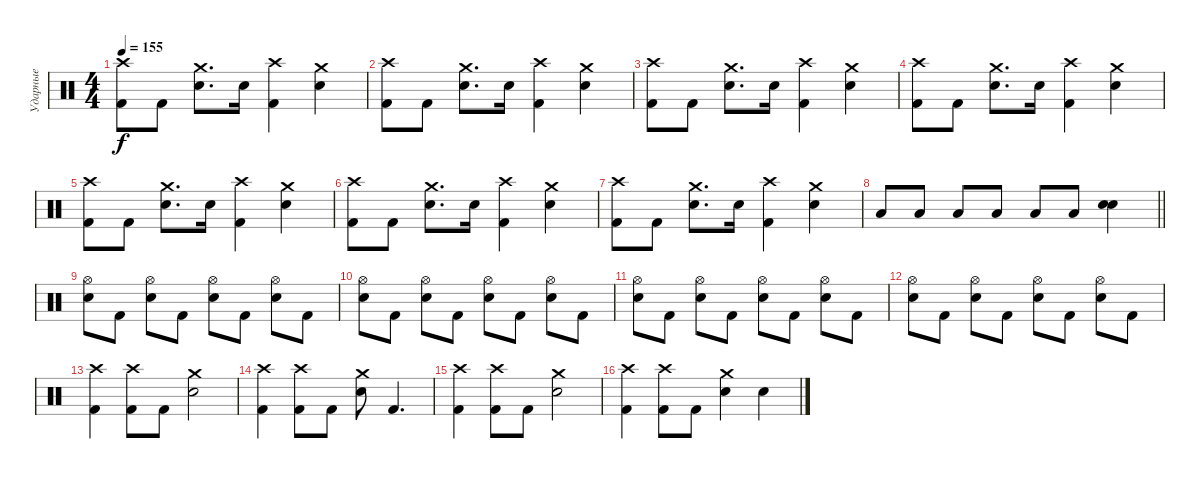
\track ("Ударные" "Ударные") {instrument percussion}
\staff {score}
\articulation defaults
\ts (4 4)
\tempo 155
\clef neutral
\ks c
("Kick (hit) 2" "Crash high (hit)").8{dy f} "Kick (hit) 2".8 ("Electric Snare (hit)" "Crash medium (hit)").8{d} "Electric Snare (hit)".16 ("Kick (hit) 2" "Crash high (hit)").4 ("Electric Snare (hit)" "Crash medium (hit)").4 |
("Kick (hit) 2" "Crash high (hit)").8 "Kick (hit) 2".8 ("Electric Snare (hit)" "Crash medium (hit)").8{d} "Electric Snare (hit)".16 ("Kick (hit) 2" "Crash high (hit)").4 ("Electric Snare (hit)" "Crash medium (hit)").4 |
("Kick (hit) 2" "Crash high (hit)").8 "Kick (hit) 2".8 ("Electric Snare (hit)" "Crash medium (hit)").8{d} "Electric Snare (hit)".16 ("Kick (hit) 2" "Crash high (hit)").4 ("Electric Snare (hit)" "Crash medium (hit)").4 |
("Kick (hit) 2" "Crash high (hit)").8 "Kick (hit) 2".8 ("Electric Snare (hit)" "Crash medium (hit)").8{d} "Electric Snare (hit)".16 ("Kick (hit) 2" "Crash high (hit)").4 ("Electric Snare (hit)" "Crash medium (hit)").4 |
("Kick (hit) 2" "Crash high (hit)").8 "Kick (hit) 2".8 ("Electric Snare (hit)" "Crash medium (hit)").8{d} "Electric Snare (hit)".16 ("Kick (hit) 2" "Crash high (hit)").4 ("Electric Snare (hit)" "Crash medium (hit)").4 |
("Kick (hit) 2" "Crash high (hit)").8 "Kick (hit) 2".8 ("Electric Snare (hit)" "Crash medium (hit)").8{d} "Electric Snare (hit)".16 ("Kick (hit) 2" "Crash high (hit)").4 ("Electric Snare (hit)" "Crash medium (hit)").4 |
("Kick (hit) 2" "Crash high (hit)").8 "Kick (hit) 2".8 ("Electric Snare (hit)" "Crash medium (hit)").8{d} "Electric Snare (hit)".16 ("Kick (hit) 2" "Crash high (hit)").4 ("Electric Snare (hit)" "Crash medium (hit)").4 |
\barLineRight lightlight "Low Floor Tom (hit)".8 "Low Floor Tom (hit)".8 "Low Floor Tom (hit)".8 "Low Floor Tom (hit)".8 "Low Floor Tom (hit)".8 "Low Floor Tom (hit)".8
("Electric Snare (hit)" "Electric Snare (hit)").4 |
("Electric Snare (hit)" "Hi-Hat (open)").8 "Kick (hit) 2".8 ("Electric Snare (hit)" "Hi-Hat (open)").8 "Kick (hit) 2".8 ("Electric Snare (hit)" "Hi-Hat (open)").8 "Kick (hit) 2".8 ("Electric Snare (hit)" "Hi-Hat (open)").8 "Kick (hit) 2".8 |
("Electric Snare (hit)" "Hi-Hat (open)").8 "Kick (hit) 2".8 ("Electric Snare (hit)" "Hi-Hat (open)").8 "Kick (hit) 2".8 ("Electric Snare (hit)" "Hi-Hat (open)").8 "Kick (hit) 2".8 ("Electric Snare (hit)" "Hi-Hat (open)").8 "Kick (hit) 2".8 |
("Electric Snare (hit)" "Hi-Hat (open)").8 "Kick (hit) 2".8 ("Electric Snare (hit)" "Hi-Hat (open)").8 "Kick (hit) 2".8 ("Electric Snare (hit)" "Hi-Hat (open)").8 "Kick (hit) 2".8 ("Electric Snare (hit)" "Hi-Hat (open)").8 "Kick (hit) 2".8 |
("Electric Snare (hit)" "Hi-Hat (open)").8 "Kick (hit) 2".8 ("Electric Snare (hit)" "Hi-Hat (open)").8 "Kick (hit) 2".8 ("Electric Snare (hit)" "Hi-Hat (open)").8 "Kick (hit) 2".8 ("Electric Snare (hit)" "Hi-Hat (open)").8 "Kick (hit) 2".8 |
("Kick (hit) 2" "Crash high (hit)").4 ("Kick (hit) 2" "Crash high (hit)").8 "Kick (hit) 2".8 ("Electric Snare (hit)" "Crash medium (hit)").2 |
("Kick (hit) 2" "Crash high (hit)").4 ("Kick (hit) 2" "Crash high (hit)").8 "Kick (hit) 2".8 ("Electric Snare (hit)" "Crash medium (hit)").8 "Kick (hit) 2".4{d} |
("Kick (hit) 2" "Crash high (hit)").4 ("Kick (hit) 2" "Crash high (hit)").8 "Kick (hit) 2".8 ("Electric Snare (hit)" "Crash medium (hit)").2 |
("Kick (hit) 2" "Crash high (hit)").4 ("Kick (hit) 2" "Crash high (hit)").8 "Kick (hit) 2".8 ("Electric Snare (hit)" "Crash medium (hit)").4 "Electric Snare (hit)".4
